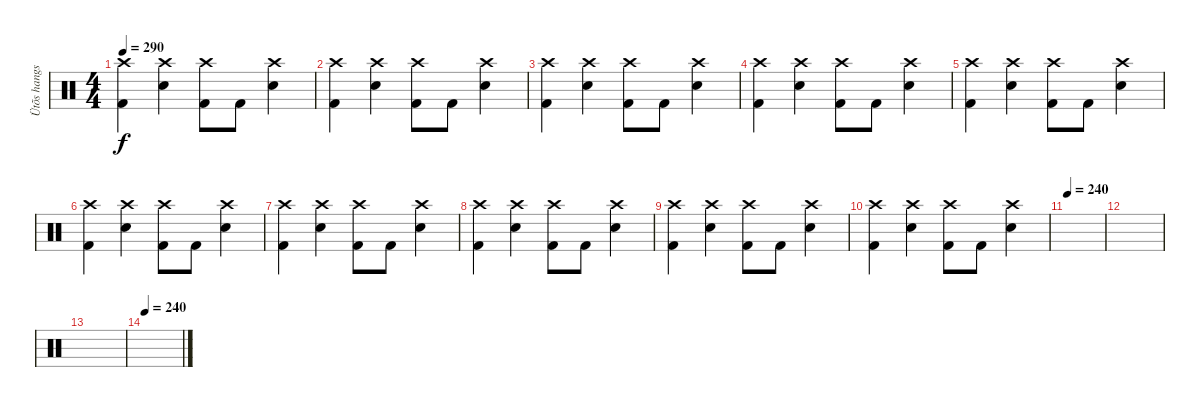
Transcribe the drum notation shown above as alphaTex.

\track ("Ütõs hangszer" "Ütõs hangs") {instrument percussion}
\staff {score}
\articulation defaults
\ts (4 4)
\tempo 290
\clef neutral
\ks c
("Crash high (hit)" "Kick (hit) 2").4{dy f} ("Crash high (hit)" "Snare (hit) 2").4 ("Crash high (hit)" "Kick (hit) 2").8 "Kick (hit) 2".8 ("Crash high (hit)" "Snare (hit) 2").4 |
("Crash high (hit)" "Kick (hit) 2").4 ("Crash high (hit)" "Snare (hit) 2").4 ("Crash high (hit)" "Kick (hit) 2").8 "Kick (hit) 2".8 ("Crash high (hit)" "Snare (hit) 2").4 |
("Crash high (hit)" "Kick (hit) 2").4 ("Crash high (hit)" "Snare (hit) 2").4 ("Crash high (hit)" "Kick (hit) 2").8 "Kick (hit) 2".8 ("Crash high (hit)" "Snare (hit) 2").4 |
("Crash high (hit)" "Kick (hit) 2").4 ("Crash high (hit)" "Snare (hit) 2").4 ("Crash high (hit)" "Kick (hit) 2").8 "Kick (hit) 2".8 ("Crash high (hit)" "Snare (hit) 2").4 |
("Crash high (hit)" "Kick (hit) 2").4 ("Crash high (hit)" "Snare (hit) 2").4 ("Crash high (hit)" "Kick (hit) 2").8 "Kick (hit) 2".8 ("Crash high (hit)" "Snare (hit) 2").4 |
("Crash high (hit)" "Kick (hit) 2").4 ("Crash high (hit)" "Snare (hit) 2").4 ("Crash high (hit)" "Kick (hit) 2").8 "Kick (hit) 2".8 ("Crash high (hit)" "Snare (hit) 2").4 |
("Crash high (hit)" "Kick (hit) 2").4 ("Crash high (hit)" "Snare (hit) 2").4 ("Crash high (hit)" "Kick (hit) 2").8 "Kick (hit) 2".8 ("Crash high (hit)" "Snare (hit) 2").4 |
("Crash high (hit)" "Kick (hit) 2").4 ("Crash high (hit)" "Snare (hit) 2").4 ("Crash high (hit)" "Kick (hit) 2").8 "Kick (hit) 2".8 ("Crash high (hit)" "Snare (hit) 2").4 |
("Crash high (hit)" "Kick (hit) 2").4 ("Crash high (hit)" "Snare (hit) 2").4 ("Crash high (hit)" "Kick (hit) 2").8 "Kick (hit) 2".8 ("Crash high (hit)" "Snare (hit) 2").4 |
("Crash high (hit)" "Kick (hit) 2").4 ("Crash high (hit)" "Snare (hit) 2").4 ("Crash high (hit)" "Kick (hit) 2").8 "Kick (hit) 2".8 ("Crash high (hit)" "Snare (hit) 2").4 |
\tempo 240
|
|
|
\tempo 240
